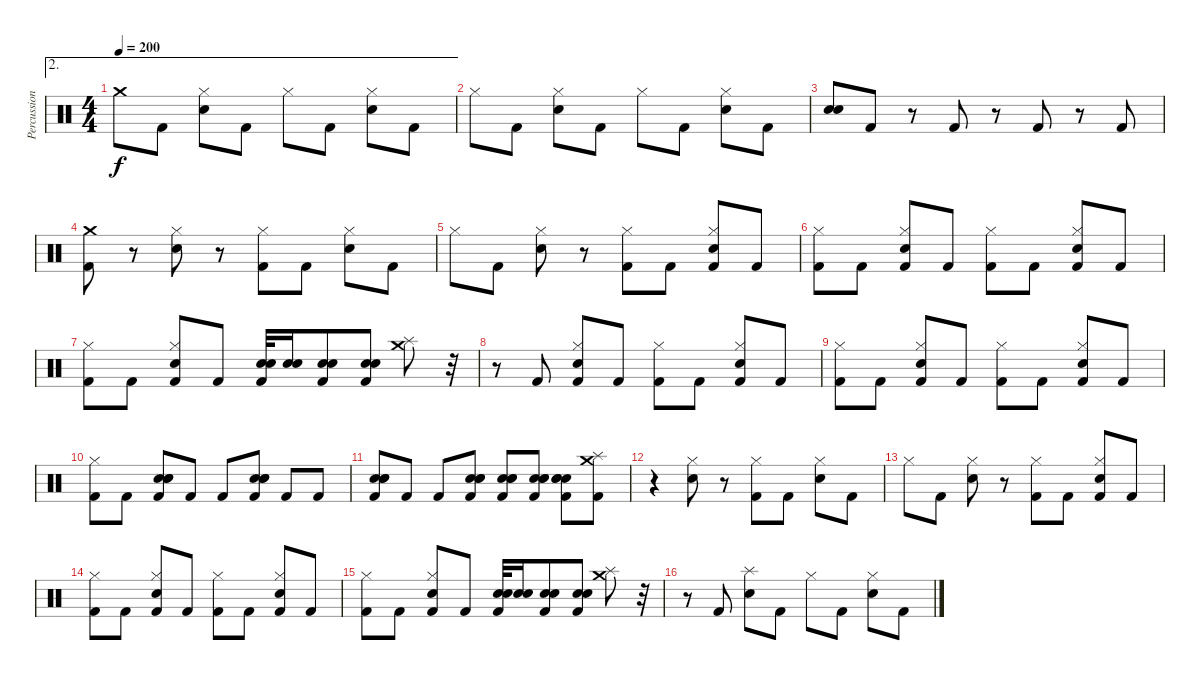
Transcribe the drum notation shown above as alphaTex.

\track ("Percussion" "Percussion") {instrument percussion}
\staff {score}
\articulation defaults
\ae 2
\ts (4 4)
\tempo 200
\clef neutral
\ks c "Crash medium (hit)".8{dy f} "Kick (hit) 2".8
("Hi-Hat (closed)" "Snare (hit) 2").8 "Kick (hit) 2".8 "Hi-Hat (closed)".8 "Kick (hit) 2".8 ("Hi-Hat (closed)" "Snare (hit) 2").8 "Kick (hit) 2".8 |
"Hi-Hat (closed)".8 "Kick (hit) 2".8 ("Hi-Hat (closed)" "Snare (hit) 2").8 "Kick (hit) 2".8 "Hi-Hat (closed)".8 "Kick (hit) 2".8 ("Hi-Hat (closed)" "Snare (hit) 2").8 "Kick (hit) 2".8 |
("Snare (hit) 2" "Snare (hit) 2").8 "Kick (hit) 2".8 r.8 "Kick (hit) 2".8 r.8 "Kick (hit) 2".8 r.8 "Kick (hit) 2".8 |
("Crash medium (hit)" "Kick (hit) 2").8 r.8 ("Hi-Hat (closed)" "Snare (hit) 2").8 r.8 ("Hi-Hat (closed)" "Kick (hit) 2").8 "Kick (hit) 2".8 ("Hi-Hat (closed)" "Snare (hit) 2").8 "Kick (hit) 2".8 |
"Hi-Hat (closed)".8 "Kick (hit) 2".8 ("Hi-Hat (closed)" "Snare (hit) 2").8 r.8 ("Hi-Hat (closed)" "Kick (hit) 2").8 "Kick (hit) 2".8 ("Hi-Hat (closed)" "Snare (hit) 2" "Kick (hit) 2").8 "Kick (hit) 2".8 |
("Hi-Hat (closed)" "Kick (hit) 2").8 "Kick (hit) 2".8 ("Hi-Hat (closed)" "Snare (hit) 2" "Kick (hit) 2").8 "Kick (hit) 2".8 ("Hi-Hat (closed)" "Kick (hit) 2").8 "Kick (hit) 2".8 ("Hi-Hat (closed)" "Snare (hit) 2" "Kick (hit) 2").8 "Kick (hit) 2".8 |
("Hi-Hat (closed)" "Kick (hit) 2").8 "Kick (hit) 2".8 ("Hi-Hat (closed)" "Snare (hit) 2" "Kick (hit) 2").8 "Kick (hit) 2".8 ("Snare (hit) 2" "Snare (hit) 2" "Kick (hit) 2").32 ("Snare (hit) 2" "Snare (hit) 2").16 ("Snare (hit) 2" "Snare (hit) 2" "Kick (hit) 2").8 ("Snare (hit) 2" "Snare (hit) 2" "Kick (hit) 2").8 ("Crash medium (hit)" "Splash (hit)").8 r.32 |
r.8 "Kick (hit) 2".8 ("Hi-Hat (closed)" "Snare (hit) 2" "Kick (hit) 2").8 "Kick (hit) 2".8 ("Hi-Hat (closed)" "Kick (hit) 2").8 "Kick (hit) 2".8 ("Hi-Hat (closed)" "Snare (hit) 2" "Kick (hit) 2").8 "Kick (hit) 2".8 |
("Hi-Hat (closed)" "Kick (hit) 2").8 "Kick (hit) 2".8 ("Hi-Hat (closed)" "Snare (hit) 2" "Kick (hit) 2").8 "Kick (hit) 2".8 ("Hi-Hat (closed)" "Kick (hit) 2").8 "Kick (hit) 2".8 ("Hi-Hat (closed)" "Snare (hit) 2" "Kick (hit) 2").8 "Kick (hit) 2".8 |
("Hi-Hat (closed)" "Kick (hit) 2").8 "Kick (hit) 2".8 ("Snare (hit) 2" "Snare (hit) 2" "Electric Snare (hit)" "Kick (hit) 2").8 "Kick (hit) 2".8 "Kick (hit) 2".8 ("Snare (hit) 2" "Snare (hit) 2" "Electric Snare (hit)" "Kick (hit) 2").8 "Kick (hit) 2".8 "Kick (hit) 2".8 |
("Snare (hit) 2" "Snare (hit) 2" "Electric Snare (hit)" "Kick (hit) 2").8 "Kick (hit) 2".8 "Kick (hit) 2".8 ("Snare (hit) 2" "Snare (hit) 2" "Electric Snare (hit)" "Kick (hit) 2").8 ("Snare (hit) 2" "Snare (hit) 2" "Electric Snare (hit)" "Kick (hit) 2").8 ("Snare (hit) 2" "Snare (hit) 2" "Electric Snare (hit)" "Kick (hit) 2").8 ("Snare (hit) 2" "Snare (hit) 2" "Electric Snare (hit)" "Kick (hit) 2").8 ("Crash medium (hit)" "Splash (hit)" "Kick (hit) 2").8 |
r.4 ("Hi-Hat (closed)" "Snare (hit) 2").8 r.8 ("Hi-Hat (closed)" "Kick (hit) 2").8 "Kick (hit) 2".8 ("Hi-Hat (closed)" "Snare (hit) 2").8 "Kick (hit) 2".8 |
"Hi-Hat (closed)".8 "Kick (hit) 2".8 ("Hi-Hat (closed)" "Snare (hit) 2").8 r.8 ("Hi-Hat (closed)" "Kick (hit) 2").8 "Kick (hit) 2".8 ("Hi-Hat (closed)" "Snare (hit) 2" "Kick (hit) 2").8 "Kick (hit) 2".8 |
("Hi-Hat (closed)" "Kick (hit) 2").8 "Kick (hit) 2".8 ("Hi-Hat (closed)" "Snare (hit) 2" "Kick (hit) 2").8 "Kick (hit) 2".8 ("Hi-Hat (closed)" "Kick (hit) 2").8 "Kick (hit) 2".8 ("Hi-Hat (closed)" "Snare (hit) 2" "Kick (hit) 2").8 "Kick (hit) 2".8 |
("Hi-Hat (closed)" "Kick (hit) 2").8 "Kick (hit) 2".8 ("Hi-Hat (closed)" "Snare (hit) 2" "Kick (hit) 2").8 "Kick (hit) 2".8 ("Snare (hit) 2" "Snare (hit) 2" "Kick (hit) 2").32 ("Snare (hit) 2" "Snare (hit) 2").16 ("Snare (hit) 2" "Snare (hit) 2" "Kick (hit) 2").8 ("Snare (hit) 2" "Snare (hit) 2" "Kick (hit) 2").8 ("Crash medium (hit)" "Splash (hit)").8 r.32 |
r.8 "Kick (hit) 2".8 ("Splash (hit)" "Snare (hit) 2").8 "Kick (hit) 2".8 "Hi-Hat (closed)".8 "Kick (hit) 2".8 ("Hi-Hat (closed)" "Snare (hit) 2").8 "Kick (hit) 2".8
